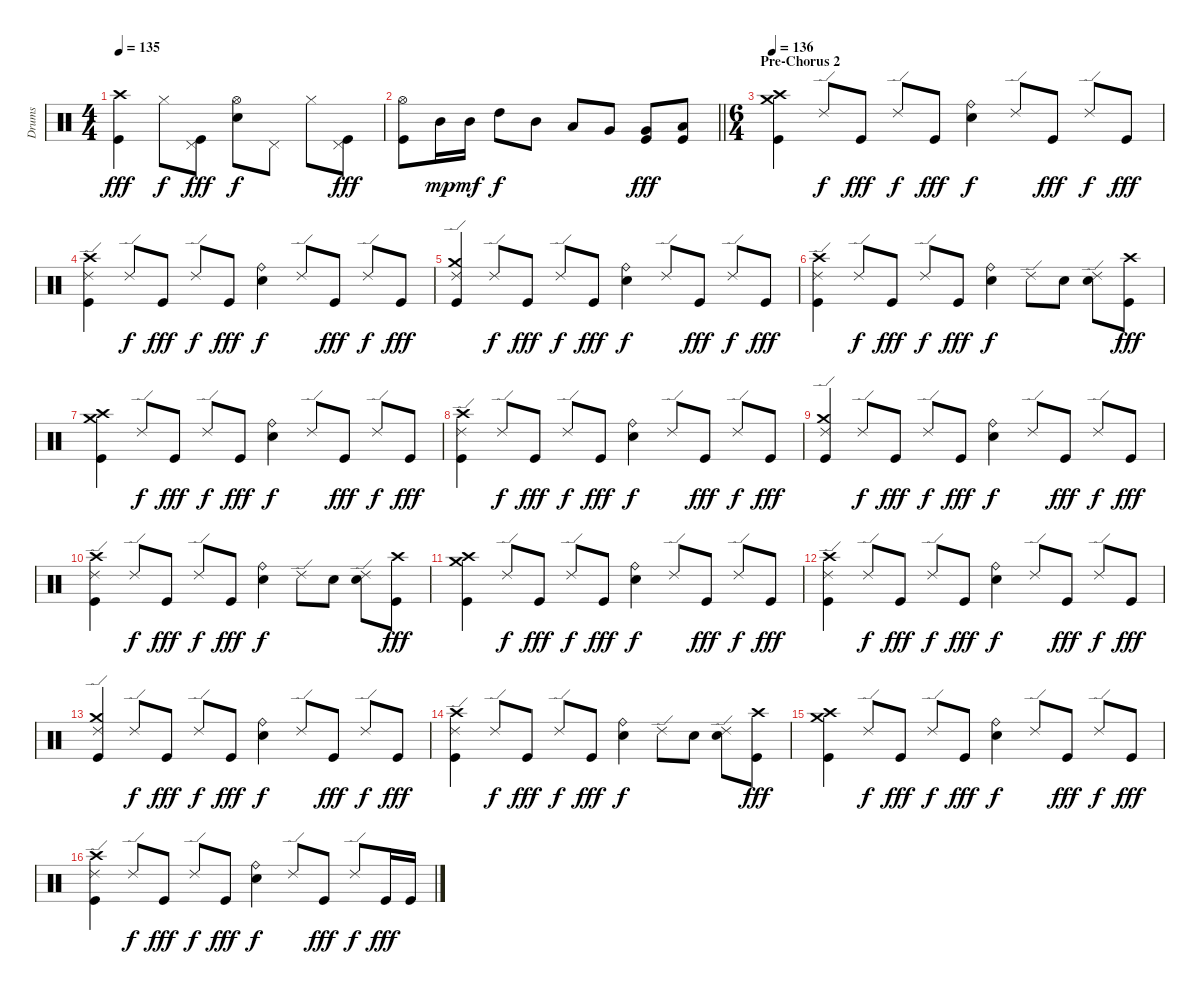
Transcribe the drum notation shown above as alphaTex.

\track ("Drums" "Drums") {instrument percussion}
\staff {score}
\articulation defaults
\ts (4 4)
\tempo 135
\clef neutral
\ks c
("Crash high (hit)" "Kick (hit)").4{dy fff} "Hi-Hat (closed)".8{dy f} ("Pedal Hi-Hat (hit)" "Kick (hit)").8{dy fff} ("Hi-Hat (open)" "Electric Snare (hit)").8{dy f} "Pedal Hi-Hat (hit)".8 "Hi-Hat (closed)".8 ("Pedal Hi-Hat (hit)" "Kick (hit)").8{dy fff} |
\barLineRight lightlight
("Hi-Hat (open)" "Kick (hit)").8 "Mid Tom (hit)".16{dy mp} "Mid Tom (hit)".16{dy mf} "High Tom (hit)".8{dy f} "Mid Tom (hit)".8 "Low Tom (hit)".8 "Very Low Tom (hit)".8 ("Very Low Tom (hit)" "Kick (hit)").8{dy fff} ("Low Floor Tom (hit)" "Kick (hit)").8 |
\ts (6 4)
\section ("" "Pre-Chorus 2")
\tempo 136
("Crash medium (hit)" "Crash high (hit)" "Kick (hit)").4 "Ride (edge) 2".8{dy f} "Kick (hit)".8{dy fff} "Ride (edge) 2".8{dy f} "Kick (hit)".8{dy fff} ("Ride (bell)" "Electric Snare (hit)").4{dy f} "Ride (edge) 2".8 "Kick (hit)".8{dy fff} "Ride (edge) 2".8{dy f} "Kick (hit)".8{dy fff} |
("Crash high (hit)" "Ride (edge) 2" "Kick (hit)").4 "Ride (edge) 2".8{dy f} "Kick (hit)".8{dy fff} "Ride (edge) 2".8{dy f} "Kick (hit)".8{dy fff} ("Ride (bell)" "Electric Snare (hit)").4{dy f} "Ride (edge) 2".8 "Kick (hit)".8{dy fff} "Ride (edge) 2".8{dy f} "Kick (hit)".8{dy fff} |
("Crash medium (hit)" "Ride (edge) 2" "Kick (hit)").4 "Ride (edge) 2".8{dy f} "Kick (hit)".8{dy fff} "Ride (edge) 2".8{dy f} "Kick (hit)".8{dy fff} ("Ride (bell)" "Electric Snare (hit)").4{dy f} "Ride (edge) 2".8 "Kick (hit)".8{dy fff} "Ride (edge) 2".8{dy f} "Kick (hit)".8{dy fff} |
("Crash high (hit)" "Ride (edge) 2" "Kick (hit)").4 "Ride (edge) 2".8{dy f} "Kick (hit)".8{dy fff} "Ride (edge) 2".8{dy f} "Kick (hit)".8{dy fff} ("Ride (bell)" "Electric Snare (hit)").4{dy f} "Ride (edge) 2".8 "Electric Snare (hit)".8 ("Ride (edge) 2" "Electric Snare (hit)").8 ("Crash high (hit)" "Kick (hit)").8{dy fff} |
("Crash medium (hit)" "Crash high (hit)" "Kick (hit)").4 "Ride (edge) 2".8{dy f} "Kick (hit)".8{dy fff} "Ride (edge) 2".8{dy f} "Kick (hit)".8{dy fff} ("Ride (bell)" "Electric Snare (hit)").4{dy f} "Ride (edge) 2".8 "Kick (hit)".8{dy fff} "Ride (edge) 2".8{dy f} "Kick (hit)".8{dy fff} |
("Crash high (hit)" "Ride (edge) 2" "Kick (hit)").4 "Ride (edge) 2".8{dy f} "Kick (hit)".8{dy fff} "Ride (edge) 2".8{dy f} "Kick (hit)".8{dy fff} ("Ride (bell)" "Electric Snare (hit)").4{dy f} "Ride (edge) 2".8 "Kick (hit)".8{dy fff} "Ride (edge) 2".8{dy f} "Kick (hit)".8{dy fff} |
("Crash medium (hit)" "Ride (edge) 2" "Kick (hit)").4 "Ride (edge) 2".8{dy f} "Kick (hit)".8{dy fff} "Ride (edge) 2".8{dy f} "Kick (hit)".8{dy fff} ("Ride (bell)" "Electric Snare (hit)").4{dy f} "Ride (edge) 2".8 "Kick (hit)".8{dy fff} "Ride (edge) 2".8{dy f} "Kick (hit)".8{dy fff} |
("Crash high (hit)" "Ride (edge) 2" "Kick (hit)").4 "Ride (edge) 2".8{dy f} "Kick (hit)".8{dy fff} "Ride (edge) 2".8{dy f} "Kick (hit)".8{dy fff} ("Ride (bell)" "Electric Snare (hit)").4{dy f} "Ride (edge) 2".8 "Electric Snare (hit)".8 ("Ride (edge) 2" "Electric Snare (hit)").8 ("Crash high (hit)" "Kick (hit)").8{dy fff} |
("Crash medium (hit)" "Crash high (hit)" "Kick (hit)").4 "Ride (edge) 2".8{dy f} "Kick (hit)".8{dy fff} "Ride (edge) 2".8{dy f} "Kick (hit)".8{dy fff} ("Ride (bell)" "Electric Snare (hit)").4{dy f} "Ride (edge) 2".8 "Kick (hit)".8{dy fff} "Ride (edge) 2".8{dy f} "Kick (hit)".8{dy fff} |
("Crash high (hit)" "Ride (edge) 2" "Kick (hit)").4 "Ride (edge) 2".8{dy f} "Kick (hit)".8{dy fff} "Ride (edge) 2".8{dy f} "Kick (hit)".8{dy fff} ("Ride (bell)" "Electric Snare (hit)").4{dy f} "Ride (edge) 2".8 "Kick (hit)".8{dy fff} "Ride (edge) 2".8{dy f} "Kick (hit)".8{dy fff} |
("Crash medium (hit)" "Ride (edge) 2" "Kick (hit)").4 "Ride (edge) 2".8{dy f} "Kick (hit)".8{dy fff} "Ride (edge) 2".8{dy f} "Kick (hit)".8{dy fff} ("Ride (bell)" "Electric Snare (hit)").4{dy f} "Ride (edge) 2".8 "Kick (hit)".8{dy fff} "Ride (edge) 2".8{dy f} "Kick (hit)".8{dy fff} |
("Crash high (hit)" "Ride (edge) 2" "Kick (hit)").4 "Ride (edge) 2".8{dy f} "Kick (hit)".8{dy fff} "Ride (edge) 2".8{dy f} "Kick (hit)".8{dy fff} ("Ride (bell)" "Electric Snare (hit)").4{dy f} "Ride (edge) 2".8 "Electric Snare (hit)".8 ("Ride (edge) 2" "Electric Snare (hit)").8 ("Crash high (hit)" "Kick (hit)").8{dy fff} |
("Crash medium (hit)" "Crash high (hit)" "Kick (hit)").4 "Ride (edge) 2".8{dy f} "Kick (hit)".8{dy fff} "Ride (edge) 2".8{dy f} "Kick (hit)".8{dy fff} ("Ride (bell)" "Electric Snare (hit)").4{dy f} "Ride (edge) 2".8 "Kick (hit)".8{dy fff} "Ride (edge) 2".8{dy f} "Kick (hit)".8{dy fff} |
("Crash high (hit)" "Ride (edge) 2" "Kick (hit)").4 "Ride (edge) 2".8{dy f} "Kick (hit)".8{dy fff} "Ride (edge) 2".8{dy f} "Kick (hit)".8{dy fff} ("Ride (bell)" "Electric Snare (hit)").4{dy f} "Ride (edge) 2".8 "Kick (hit)".8{dy fff} "Ride (edge) 2".8{dy f} "Kick (hit)".16{dy fff} "Kick (hit)".16
